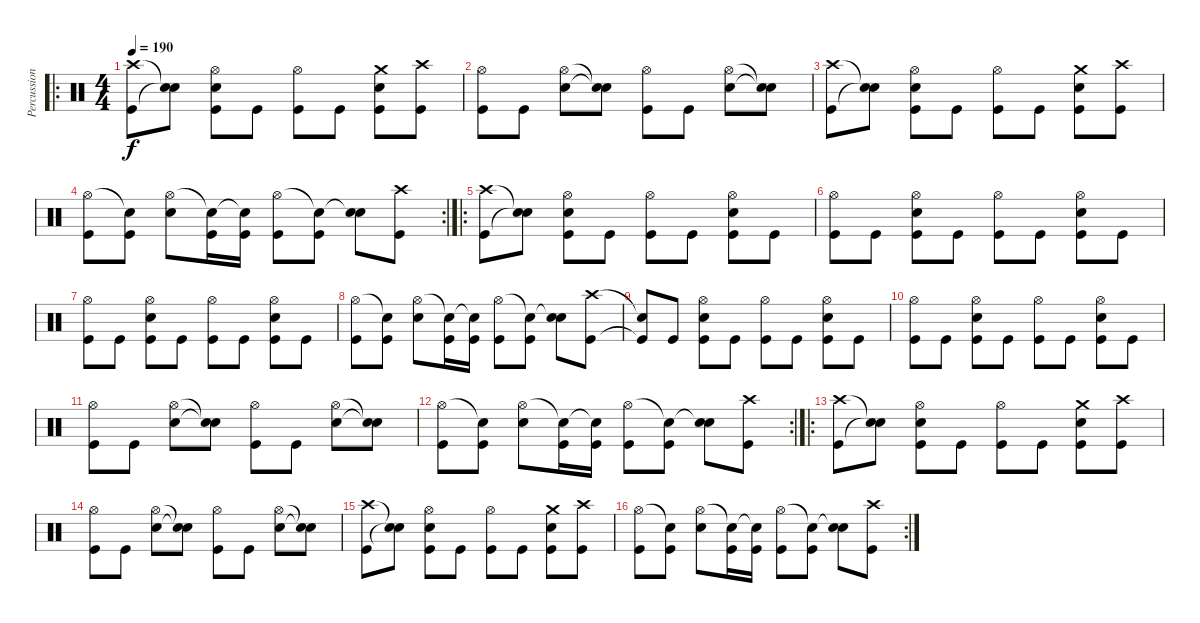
\track ("Percussion" "Percussion") {instrument percussion}
\staff {score}
\articulation defaults
\ro
\ts (4 4)
\tempo 190
\clef neutral
\ks c
("Crash high (hit)" "Kick (hit)").8{dy f} ("Snare (hit)"{t} "Snare (hit)"{t}).8 ("Hi-Hat (open)" "Snare (hit) 2" "Kick (hit)").8 "Kick (hit)".8 ("Hi-Hat (open)" "Kick (hit)").8 "Kick (hit)".8 ("Crash medium (hit)" "Snare (hit) 2" "Kick (hit)").8 ("Crash high (hit)" "Kick (hit)").8 |
("Hi-Hat (open)" "Kick (hit)").8 "Kick (hit)".8 ("Hi-Hat (open)" "Snare (hit) 2").8 ("Snare (hit)"{t} "Snare (hit)"{t}).8 ("Hi-Hat (open)" "Kick (hit)").8 "Kick (hit)".8 ("Hi-Hat (open)" "Snare (hit) 2").8 ("Snare (hit)"{t} "Snare (hit)"{t}).8 |
("Crash high (hit)" "Kick (hit)").8 ("Snare (hit)"{t} "Snare (hit)"{t}).8 ("Hi-Hat (open)" "Snare (hit) 2" "Kick (hit)").8 "Kick (hit)".8 ("Hi-Hat (open)" "Kick (hit)").8 "Kick (hit)".8 ("Crash medium (hit)" "Snare (hit) 2" "Kick (hit)").8 ("Crash high (hit)" "Kick (hit)").8 |
\rc 2
("Hi-Hat (open)" "Kick (hit)").8 ("Snare (hit)"{t} "Kick (hit)").8 ("Hi-Hat (open)" "Snare (hit) 2").8 ("Snare (hit)"{t} "Kick (hit)").16 ("Snare (hit)"{t} "Kick (hit)").16 ("Hi-Hat (open)" "Kick (hit)").8 ("Snare (hit)"{t} "Kick (hit)").8 ("Snare (hit)"{t} "Snare (hit) 2").8 ("Crash high (hit)" "Kick (hit)").8 |
\ro
("Crash high (hit)" "Kick (hit)").8 ("Snare (hit)"{t} "Snare (hit)"{t}).8 ("Hi-Hat (open)" "Snare (hit) 2" "Kick (hit)").8 "Kick (hit)".8 ("Hi-Hat (open)" "Kick (hit)").8 "Kick (hit)".8 ("Hi-Hat (open)" "Snare (hit) 2" "Kick (hit)").8 "Kick (hit)".8 |
("Hi-Hat (open)" "Kick (hit)").8 "Kick (hit)".8 ("Hi-Hat (open)" "Snare (hit) 2" "Kick (hit)").8 "Kick (hit)".8 ("Hi-Hat (open)" "Kick (hit)").8 "Kick (hit)".8 ("Hi-Hat (open)" "Snare (hit) 2" "Kick (hit)").8 "Kick (hit)".8 |
("Hi-Hat (open)" "Kick (hit)").8 "Kick (hit)".8 ("Hi-Hat (open)" "Snare (hit) 2" "Kick (hit)").8 "Kick (hit)".8 ("Hi-Hat (open)" "Kick (hit)").8 "Kick (hit)".8 ("Hi-Hat (open)" "Snare (hit) 2" "Kick (hit)").8 "Kick (hit)".8 |
("Hi-Hat (open)" "Kick (hit)").8 ("Snare (hit)"{t} "Kick (hit)").8 ("Hi-Hat (open)" "Snare (hit) 2").8 ("Snare (hit)"{t} "Kick (hit)").16 ("Snare (hit)"{t} "Kick (hit)").16 ("Hi-Hat (open)" "Kick (hit)").8 ("Snare (hit)"{t} "Kick (hit)").8 ("Snare (hit)"{t} "Snare (hit) 2").8 ("Crash high (hit)" "Kick (hit)").8 |
("Snare (hit)"{t} "Kick (hit)"{t}).8 "Kick (hit)".8 ("Hi-Hat (open)" "Snare (hit) 2" "Kick (hit)").8 "Kick (hit)".8 ("Hi-Hat (open)" "Kick (hit)").8 "Kick (hit)".8 ("Hi-Hat (open)" "Snare (hit) 2" "Kick (hit)").8 "Kick (hit)".8 |
("Hi-Hat (open)" "Kick (hit)").8 "Kick (hit)".8 ("Hi-Hat (open)" "Snare (hit) 2" "Kick (hit)").8 "Kick (hit)".8 ("Hi-Hat (open)" "Kick (hit)").8 "Kick (hit)".8 ("Hi-Hat (open)" "Snare (hit) 2" "Kick (hit)").8 "Kick (hit)".8 |
("Hi-Hat (open)" "Kick (hit)").8 "Kick (hit)".8 ("Hi-Hat (open)" "Snare (hit) 2").8 ("Snare (hit)"{t} "Snare (hit)"{t}).8 ("Hi-Hat (open)" "Kick (hit)").8 "Kick (hit)".8 ("Hi-Hat (open)" "Snare (hit) 2").8 ("Snare (hit)"{t} "Snare (hit)"{t}).8 |
\rc 2
("Hi-Hat (open)" "Kick (hit)").8 ("Snare (hit)"{t} "Kick (hit)").8 ("Hi-Hat (open)" "Snare (hit) 2").8 ("Snare (hit)"{t} "Kick (hit)").16 ("Snare (hit)"{t} "Kick (hit)").16 ("Hi-Hat (open)" "Kick (hit)").8 ("Snare (hit)"{t} "Kick (hit)").8 ("Snare (hit)"{t} "Snare (hit) 2").8 ("Crash high (hit)" "Kick (hit)").8 |
\ro
("Crash high (hit)" "Kick (hit)").8 ("Snare (hit)"{t} "Snare (hit)"{t}).8 ("Hi-Hat (open)" "Snare (hit) 2" "Kick (hit)").8 "Kick (hit)".8 ("Hi-Hat (open)" "Kick (hit)").8 "Kick (hit)".8 ("Crash medium (hit)" "Snare (hit) 2" "Kick (hit)").8 ("Crash high (hit)" "Kick (hit)").8 |
("Hi-Hat (open)" "Kick (hit)").8 "Kick (hit)".8 ("Hi-Hat (open)" "Snare (hit) 2").8 ("Snare (hit)"{t} "Snare (hit)"{t}).8 ("Hi-Hat (open)" "Kick (hit)").8 "Kick (hit)".8 ("Hi-Hat (open)" "Snare (hit) 2").8 ("Snare (hit)"{t} "Snare (hit)"{t}).8 |
("Crash high (hit)" "Kick (hit)").8 ("Snare (hit)"{t} "Snare (hit)"{t}).8 ("Hi-Hat (open)" "Snare (hit) 2" "Kick (hit)").8 "Kick (hit)".8 ("Hi-Hat (open)" "Kick (hit)").8 "Kick (hit)".8 ("Crash medium (hit)" "Snare (hit) 2" "Kick (hit)").8 ("Crash high (hit)" "Kick (hit)").8 |
\rc 2
("Hi-Hat (open)" "Kick (hit)").8 ("Snare (hit)"{t} "Kick (hit)").8 ("Hi-Hat (open)" "Snare (hit) 2").8 ("Snare (hit)"{t} "Kick (hit)").16 ("Snare (hit)"{t} "Kick (hit)").16 ("Hi-Hat (open)" "Kick (hit)").8 ("Snare (hit)"{t} "Kick (hit)").8 ("Snare (hit)"{t} "Snare (hit) 2").8 ("Crash high (hit)" "Kick (hit)").8
